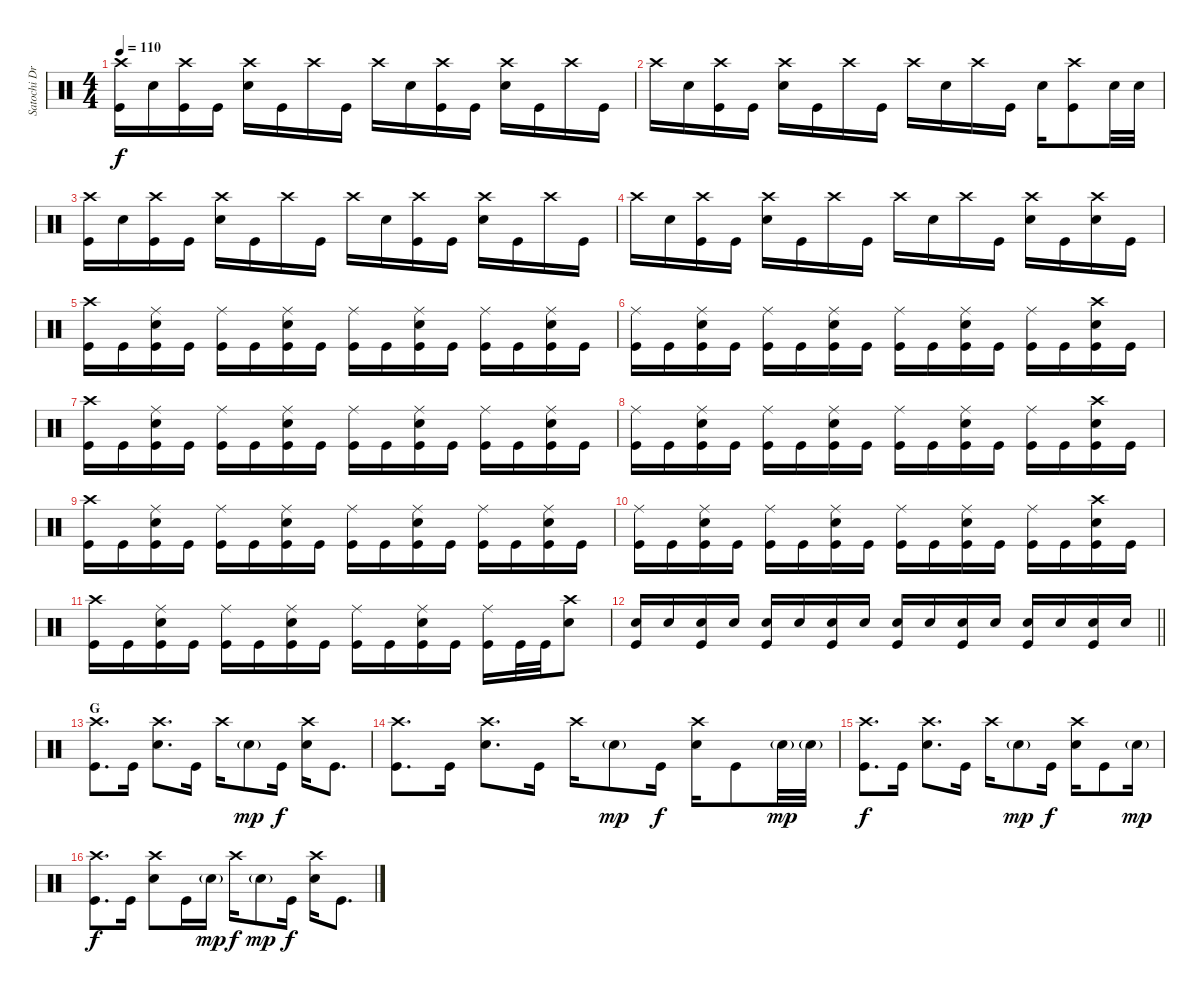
\track ("Satochi Drums" "Satochi Dr") {instrument percussion}
\staff {score}
\articulation defaults
\ts (4 4)
\tempo 110
\clef neutral
\ks c
("Crash high (hit)" "Kick (hit)").16{dy f} "Electric Snare (hit)".16 ("Crash high (hit)" "Kick (hit)").16 "Kick (hit)".16 ("Crash high (hit)" "Electric Snare (hit)").16 "Kick (hit)".16 "Crash high (hit)".16 "Kick (hit)".16 "Crash high (hit)".16 "Electric Snare (hit)".16 ("Crash high (hit)" "Kick (hit)").16 "Kick (hit)".16 ("Crash high (hit)" "Electric Snare (hit)").16 "Kick (hit)".16 "Crash high (hit)".16 "Kick (hit)".16 |
"Crash high (hit)".16 "Electric Snare (hit)".16 ("Crash high (hit)" "Kick (hit)").16 "Kick (hit)".16 ("Crash high (hit)" "Electric Snare (hit)").16 "Kick (hit)".16 "Crash high (hit)".16 "Kick (hit)".16 "Crash high (hit)".16 "Electric Snare (hit)".16 "Crash high (hit)".16 "Kick (hit)".16 "Electric Snare (hit)".16 ("Crash high (hit)" "Kick (hit)").8 "Electric Snare (hit)".32 "Electric Snare (hit)".32 |
("Crash high (hit)" "Kick (hit)").16 "Electric Snare (hit)".16 ("Crash high (hit)" "Kick (hit)").16 "Kick (hit)".16 ("Crash high (hit)" "Electric Snare (hit)").16 "Kick (hit)".16 "Crash high (hit)".16 "Kick (hit)".16 "Crash high (hit)".16 "Electric Snare (hit)".16 ("Crash high (hit)" "Kick (hit)").16 "Kick (hit)".16 ("Crash high (hit)" "Electric Snare (hit)").16 "Kick (hit)".16 "Crash high (hit)".16 "Kick (hit)".16 |
"Crash high (hit)".16 "Electric Snare (hit)".16 ("Crash high (hit)" "Kick (hit)").16 "Kick (hit)".16 ("Crash high (hit)" "Electric Snare (hit)").16 "Kick (hit)".16 "Crash high (hit)".16 "Kick (hit)".16 "Crash high (hit)".16 "Electric Snare (hit)".16 "Crash high (hit)".16 "Kick (hit)".16 ("Crash high (hit)" "Electric Snare (hit)").16 "Kick (hit)".16 ("Crash high (hit)" "Electric Snare (hit)").16 "Kick (hit)".16 |
("Crash high (hit)" "Kick (hit)").16 "Kick (hit)".16 ("Ride (middle)" "Electric Snare (hit)" "Kick (hit)").16 "Kick (hit)".16 ("Ride (middle)" "Kick (hit)").16 "Kick (hit)".16 ("Ride (middle)" "Electric Snare (hit)" "Kick (hit)").16 "Kick (hit)".16 ("Ride (middle)" "Kick (hit)").16 "Kick (hit)".16 ("Ride (middle)" "Electric Snare (hit)" "Kick (hit)").16 "Kick (hit)".16 ("Ride (middle)" "Kick (hit)").16 "Kick (hit)".16 ("Ride (middle)" "Electric Snare (hit)" "Kick (hit)").16 "Kick (hit)".16 |
("Ride (middle)" "Kick (hit)").16 "Kick (hit)".16 ("Ride (middle)" "Electric Snare (hit)" "Kick (hit)").16 "Kick (hit)".16 ("Ride (middle)" "Kick (hit)").16 "Kick (hit)".16 ("Ride (middle)" "Electric Snare (hit)" "Kick (hit)").16 "Kick (hit)".16 ("Ride (middle)" "Kick (hit)").16 "Kick (hit)".16 ("Ride (middle)" "Electric Snare (hit)" "Kick (hit)").16 "Kick (hit)".16 ("Ride (middle)" "Kick (hit)").16 "Kick (hit)".16 ("Crash high (hit)" "Electric Snare (hit)" "Kick (hit)").16 "Kick (hit)".16 |
("Crash high (hit)" "Kick (hit)").16 "Kick (hit)".16 ("Ride (middle)" "Electric Snare (hit)" "Kick (hit)").16 "Kick (hit)".16 ("Ride (middle)" "Kick (hit)").16 "Kick (hit)".16 ("Ride (middle)" "Electric Snare (hit)" "Kick (hit)").16 "Kick (hit)".16 ("Ride (middle)" "Kick (hit)").16 "Kick (hit)".16 ("Ride (middle)" "Electric Snare (hit)" "Kick (hit)").16 "Kick (hit)".16 ("Ride (middle)" "Kick (hit)").16 "Kick (hit)".16 ("Ride (middle)" "Electric Snare (hit)" "Kick (hit)").16 "Kick (hit)".16 |
("Ride (middle)" "Kick (hit)").16 "Kick (hit)".16 ("Ride (middle)" "Electric Snare (hit)" "Kick (hit)").16 "Kick (hit)".16 ("Ride (middle)" "Kick (hit)").16 "Kick (hit)".16 ("Ride (middle)" "Electric Snare (hit)" "Kick (hit)").16 "Kick (hit)".16 ("Ride (middle)" "Kick (hit)").16 "Kick (hit)".16 ("Ride (middle)" "Electric Snare (hit)" "Kick (hit)").16 "Kick (hit)".16 ("Ride (middle)" "Kick (hit)").16 "Kick (hit)".16 ("Crash high (hit)" "Electric Snare (hit)" "Kick (hit)").16 "Kick (hit)".16 |
("Crash high (hit)" "Kick (hit)").16 "Kick (hit)".16 ("Ride (middle)" "Electric Snare (hit)" "Kick (hit)").16 "Kick (hit)".16 ("Ride (middle)" "Kick (hit)").16 "Kick (hit)".16 ("Ride (middle)" "Electric Snare (hit)" "Kick (hit)").16 "Kick (hit)".16 ("Ride (middle)" "Kick (hit)").16 "Kick (hit)".16 ("Ride (middle)" "Electric Snare (hit)" "Kick (hit)").16 "Kick (hit)".16 ("Ride (middle)" "Kick (hit)").16 "Kick (hit)".16 ("Ride (middle)" "Electric Snare (hit)" "Kick (hit)").16 "Kick (hit)".16 |
("Ride (middle)" "Kick (hit)").16 "Kick (hit)".16 ("Ride (middle)" "Electric Snare (hit)" "Kick (hit)").16 "Kick (hit)".16 ("Ride (middle)" "Kick (hit)").16 "Kick (hit)".16 ("Ride (middle)" "Electric Snare (hit)" "Kick (hit)").16 "Kick (hit)".16 ("Ride (middle)" "Kick (hit)").16 "Kick (hit)".16 ("Ride (middle)" "Electric Snare (hit)" "Kick (hit)").16 "Kick (hit)".16 ("Ride (middle)" "Kick (hit)").16 "Kick (hit)".16 ("Crash high (hit)" "Electric Snare (hit)" "Kick (hit)").16 "Kick (hit)".16 |
("Crash high (hit)" "Kick (hit)").16 "Kick (hit)".16 ("Ride (middle)" "Electric Snare (hit)" "Kick (hit)").16 "Kick (hit)".16 ("Ride (middle)" "Kick (hit)").16 "Kick (hit)".16 ("Ride (middle)" "Electric Snare (hit)" "Kick (hit)").16 "Kick (hit)".16 ("Ride (middle)" "Kick (hit)").16 "Kick (hit)".16 ("Ride (middle)" "Electric Snare (hit)" "Kick (hit)").16 "Kick (hit)".16 ("Ride (middle)" "Kick (hit)").16 "Kick (hit)".32 "Kick (hit)".32 ("Crash high (hit)" "Electric Snare (hit)").8 |
\barLineRight lightlight
("Electric Snare (hit)" "Kick (hit)").16 "Electric Snare (hit)".16 ("Electric Snare (hit)" "Kick (hit)").16 "Electric Snare (hit)".16 ("Electric Snare (hit)" "Kick (hit)").16 "Electric Snare (hit)".16 ("Electric Snare (hit)" "Kick (hit)").16 "Electric Snare (hit)".16 ("Electric Snare (hit)" "Kick (hit)").16 "Electric Snare (hit)".16 ("Electric Snare (hit)" "Kick (hit)").16 "Electric Snare (hit)".16 ("Electric Snare (hit)" "Kick (hit)").16 "Electric Snare (hit)".16 ("Electric Snare (hit)" "Kick (hit)").16 "Electric Snare (hit)".16 |
\section ("" "G")
("Crash high (hit)" "Kick (hit)").8{d} "Kick (hit)".16 ("Crash high (hit)" "Electric Snare (hit)").8{d} "Kick (hit)".16 "Crash high (hit)".16 "Electric Snare (hit)"{g}.8{dy mp} "Kick (hit)".16{dy f} ("Crash high (hit)" "Electric Snare (hit)").16 "Kick (hit)".8{d} |
("Crash high (hit)" "Kick (hit)").8{d} "Kick (hit)".16 ("Crash high (hit)" "Electric Snare (hit)").8{d} "Kick (hit)".16 "Crash high (hit)".16 "Electric Snare (hit)"{g}.8{dy mp} "Kick (hit)".16{dy f} ("Crash high (hit)" "Electric Snare (hit)").16 "Kick (hit)".8 "Electric Snare (hit)"{g}.32{dy mp} "Electric Snare (hit)"{g}.32 |
("Crash high (hit)" "Kick (hit)").8{d dy f} "Kick (hit)".16 ("Crash high (hit)" "Electric Snare (hit)").8{d} "Kick (hit)".16 "Crash high (hit)".16 "Electric Snare (hit)"{g}.8{dy mp} "Kick (hit)".16{dy f} ("Crash high (hit)" "Electric Snare (hit)").16 "Kick (hit)".8 "Electric Snare (hit)"{g}.16{dy mp} |
("Crash high (hit)" "Kick (hit)").8{d dy f} "Kick (hit)".16 ("Crash high (hit)" "Electric Snare (hit)").8 "Kick (hit)".16 "Electric Snare (hit)"{g}.16{dy mp} "Crash high (hit)".16{dy f} "Electric Snare (hit)"{g}.8{dy mp} "Kick (hit)".16{dy f} ("Crash high (hit)" "Electric Snare (hit)").16 "Kick (hit)".8{d}
